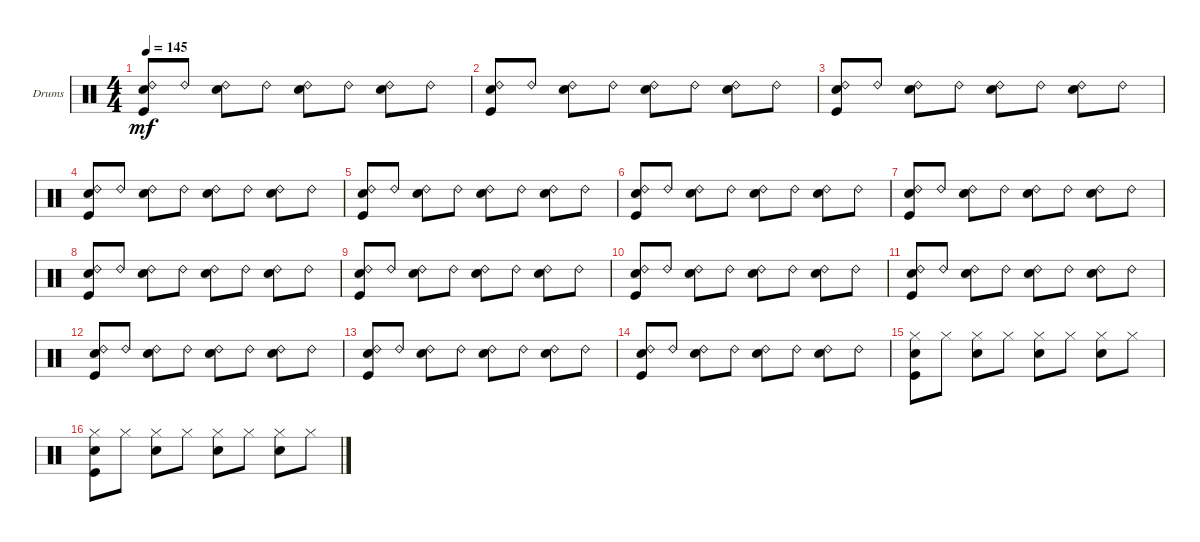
\bracketExtendMode groupsimilarinstruments
\firstSystemTrackNameOrientation horizontal
\otherSystemsTrackNameOrientation horizontal
\track ("Drumkit" "Drums") {instrument percussion}
\staff {score}
\articulation defaults
\ts (4 4)
\tempo 145
\clef neutral
\ks c
("Kick (hit)" "Snare (hit) 2" "Ride (bell) 2").8{dy mf} "Ride (bell) 2".8 ("Snare (hit) 2" "Ride (bell) 2").8 "Ride (bell) 2".8 ("Snare (hit) 2" "Ride (bell) 2").8 "Ride (bell) 2".8 ("Snare (hit) 2" "Ride (bell) 2").8 "Ride (bell) 2".8 |
("Kick (hit)" "Snare (hit) 2" "Ride (bell) 2").8 "Ride (bell) 2".8 ("Snare (hit) 2" "Ride (bell) 2").8 "Ride (bell) 2".8 ("Snare (hit) 2" "Ride (bell) 2").8 "Ride (bell) 2".8 ("Snare (hit) 2" "Ride (bell) 2").8 "Ride (bell) 2".8 |
("Kick (hit)" "Snare (hit) 2" "Ride (bell) 2").8 "Ride (bell) 2".8 ("Snare (hit) 2" "Ride (bell) 2").8 "Ride (bell) 2".8 ("Snare (hit) 2" "Ride (bell) 2").8 "Ride (bell) 2".8 ("Snare (hit) 2" "Ride (bell) 2").8 "Ride (bell) 2".8 |
("Kick (hit)" "Snare (hit) 2" "Ride (bell) 2").8 "Ride (bell) 2".8 ("Snare (hit) 2" "Ride (bell) 2").8 "Ride (bell) 2".8 ("Snare (hit) 2" "Ride (bell) 2").8 "Ride (bell) 2".8 ("Snare (hit) 2" "Ride (bell) 2").8 "Ride (bell) 2".8 |
("Kick (hit)" "Snare (hit) 2" "Ride (bell) 2").8 "Ride (bell) 2".8 ("Snare (hit) 2" "Ride (bell) 2").8 "Ride (bell) 2".8 ("Snare (hit) 2" "Ride (bell) 2").8 "Ride (bell) 2".8 ("Snare (hit) 2" "Ride (bell) 2").8 "Ride (bell) 2".8 |
("Kick (hit)" "Snare (hit) 2" "Ride (bell) 2").8 "Ride (bell) 2".8 ("Snare (hit) 2" "Ride (bell) 2").8 "Ride (bell) 2".8 ("Snare (hit) 2" "Ride (bell) 2").8 "Ride (bell) 2".8 ("Snare (hit) 2" "Ride (bell) 2").8 "Ride (bell) 2".8 |
("Kick (hit)" "Snare (hit) 2" "Ride (bell) 2").8 "Ride (bell) 2".8 ("Snare (hit) 2" "Ride (bell) 2").8 "Ride (bell) 2".8 ("Snare (hit) 2" "Ride (bell) 2").8 "Ride (bell) 2".8 ("Snare (hit) 2" "Ride (bell) 2").8 "Ride (bell) 2".8 |
("Kick (hit)" "Snare (hit) 2" "Ride (bell) 2").8 "Ride (bell) 2".8 ("Snare (hit) 2" "Ride (bell) 2").8 "Ride (bell) 2".8 ("Snare (hit) 2" "Ride (bell) 2").8 "Ride (bell) 2".8 ("Snare (hit) 2" "Ride (bell) 2").8 "Ride (bell) 2".8 |
("Kick (hit)" "Snare (hit) 2" "Ride (bell) 2").8 "Ride (bell) 2".8 ("Snare (hit) 2" "Ride (bell) 2").8 "Ride (bell) 2".8 ("Snare (hit) 2" "Ride (bell) 2").8 "Ride (bell) 2".8 ("Snare (hit) 2" "Ride (bell) 2").8 "Ride (bell) 2".8 |
("Kick (hit)" "Snare (hit) 2" "Ride (bell) 2").8 "Ride (bell) 2".8 ("Snare (hit) 2" "Ride (bell) 2").8 "Ride (bell) 2".8 ("Snare (hit) 2" "Ride (bell) 2").8 "Ride (bell) 2".8 ("Snare (hit) 2" "Ride (bell) 2").8 "Ride (bell) 2".8 |
("Kick (hit)" "Snare (hit) 2" "Ride (bell) 2").8 "Ride (bell) 2".8 ("Snare (hit) 2" "Ride (bell) 2").8 "Ride (bell) 2".8 ("Snare (hit) 2" "Ride (bell) 2").8 "Ride (bell) 2".8 ("Snare (hit) 2" "Ride (bell) 2").8 "Ride (bell) 2".8 |
("Kick (hit)" "Snare (hit) 2" "Ride (bell) 2").8 "Ride (bell) 2".8 ("Snare (hit) 2" "Ride (bell) 2").8 "Ride (bell) 2".8 ("Snare (hit) 2" "Ride (bell) 2").8 "Ride (bell) 2".8 ("Snare (hit) 2" "Ride (bell) 2").8 "Ride (bell) 2".8 |
("Kick (hit)" "Snare (hit) 2" "Ride (bell) 2").8 "Ride (bell) 2".8 ("Snare (hit) 2" "Ride (bell) 2").8 "Ride (bell) 2".8 ("Snare (hit) 2" "Ride (bell) 2").8 "Ride (bell) 2".8 ("Snare (hit) 2" "Ride (bell) 2").8 "Ride (bell) 2".8 |
("Kick (hit)" "Snare (hit) 2" "Ride (bell) 2").8 "Ride (bell) 2".8 ("Snare (hit) 2" "Ride (bell) 2").8 "Ride (bell) 2".8 ("Snare (hit) 2" "Ride (bell) 2").8 "Ride (bell) 2".8 ("Snare (hit) 2" "Ride (bell) 2").8 "Ride (bell) 2".8 |
("Hi-Hat (closed)" "Kick (hit)" "Snare (hit) 2").8 "Hi-Hat (closed)".8 ("Hi-Hat (closed)" "Snare (hit) 2").8 "Hi-Hat (closed)".8 ("Hi-Hat (closed)" "Snare (hit) 2").8 "Hi-Hat (closed)".8 ("Hi-Hat (closed)" "Snare (hit) 2").8 "Hi-Hat (closed)".8 |
("Hi-Hat (closed)" "Kick (hit)" "Snare (hit) 2").8 "Hi-Hat (closed)".8 ("Hi-Hat (closed)" "Snare (hit) 2").8 "Hi-Hat (closed)".8 ("Hi-Hat (closed)" "Snare (hit) 2").8 "Hi-Hat (closed)".8 ("Hi-Hat (closed)" "Snare (hit) 2").8 "Hi-Hat (closed)".8
